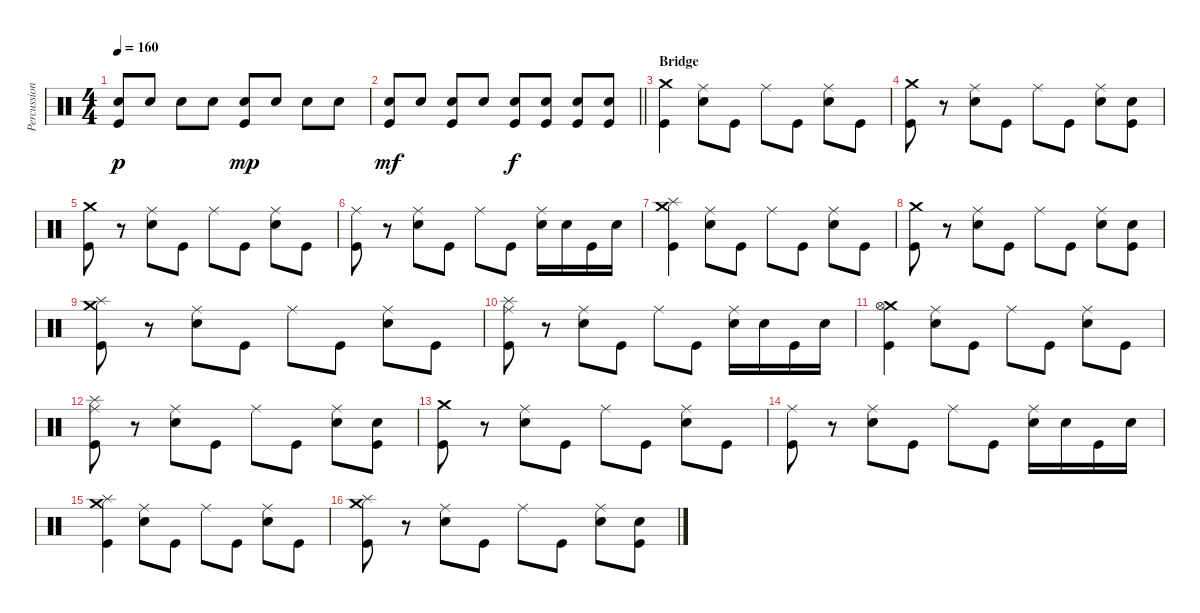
\track ("Percussion" "Percussion") {instrument percussion}
\staff {score}
\articulation defaults
\ts (4 4)
\tempo 160
\clef neutral
\ks c
("Snare (hit) 2" "Kick (hit)").8{dy p} "Snare (hit) 2".8 "Snare (hit) 2".8 "Snare (hit) 2".8 ("Snare (hit) 2" "Kick (hit)").8{dy mp} "Snare (hit) 2".8 "Snare (hit) 2".8 "Snare (hit) 2".8 |
\barLineRight lightlight
("Snare (hit) 2" "Kick (hit)").8{dy mf} "Snare (hit) 2".8 ("Snare (hit) 2" "Kick (hit)").8 "Snare (hit) 2".8 ("Snare (hit) 2" "Kick (hit)").8{dy f} ("Snare (hit) 2" "Kick (hit)").8 ("Snare (hit) 2" "Kick (hit)").8 ("Snare (hit) 2" "Kick (hit)").8 |
\section ("" "Bridge")
("Crash medium (hit)" "Kick (hit)").4 ("Ride (middle)" "Snare (hit) 2").8 "Kick (hit)".8 "Ride (middle)".8 "Kick (hit)".8 ("Ride (middle)" "Snare (hit) 2").8 "Kick (hit)".8 |
("Crash medium (hit)" "Kick (hit)").8 r.8 ("Ride (middle)" "Snare (hit) 2").8 "Kick (hit)".8 "Ride (middle)".8 "Kick (hit)".8 ("Ride (middle)" "Snare (hit) 2").8 ("Snare (hit) 2" "Kick (hit)").8 |
("Crash medium (hit)" "Kick (hit)").8 r.8 ("Ride (middle)" "Snare (hit) 2").8 "Kick (hit)".8 "Ride (middle)".8 "Kick (hit)".8 ("Ride (middle)" "Snare (hit) 2").8 "Kick (hit)".8 |
("Ride (middle)" "Kick (hit)").8 r.8 ("Ride (middle)" "Snare (hit) 2").8 "Kick (hit)".8 "Ride (middle)".8 "Kick (hit)".8 ("Ride (middle)" "Snare (hit) 2").16 "Snare (hit) 2".16 "Kick (hit)".16 "Snare (hit) 2".16 |
("Crash medium (hit)" "Splash (hit)" "Kick (hit)").4 ("Ride (middle)" "Snare (hit) 2").8 "Kick (hit)".8 "Ride (middle)".8 "Kick (hit)".8 ("Ride (middle)" "Snare (hit) 2").8 "Kick (hit)".8 |
("Crash medium (hit)" "Kick (hit)").8 r.8 ("Ride (middle)" "Snare (hit) 2").8 "Kick (hit)".8 "Ride (middle)".8 "Kick (hit)".8 ("Ride (middle)" "Snare (hit) 2").8 ("Snare (hit) 2" "Kick (hit)").8 |
("Crash medium (hit)" "Splash (hit)" "Kick (hit)").8 r.8 ("Ride (middle)" "Snare (hit) 2").8 "Kick (hit)".8 "Ride (middle)".8 "Kick (hit)".8 ("Ride (middle)" "Snare (hit) 2").8 "Kick (hit)".8 |
("Ride (middle)" "Splash (hit)" "Kick (hit)").8 r.8 ("Ride (middle)" "Snare (hit) 2").8 "Kick (hit)".8 "Ride (middle)".8 "Kick (hit)".8 ("Ride (middle)" "Snare (hit) 2").16 "Snare (hit) 2".16 "Kick (hit)".16 "Snare (hit) 2".16 |
("Crash medium (hit)" "Hi-Hat (open)" "Kick (hit)").4 ("Ride (middle)" "Snare (hit) 2").8 "Kick (hit)".8 "Ride (middle)".8 "Kick (hit)".8 ("Ride (middle)" "Snare (hit) 2").8 "Kick (hit)".8 |
("Ride (middle)" "Splash (hit)" "Kick (hit)").8 r.8 ("Ride (middle)" "Snare (hit) 2").8 "Kick (hit)".8 "Ride (middle)".8 "Kick (hit)".8 ("Ride (middle)" "Snare (hit) 2").8 ("Snare (hit) 2" "Kick (hit)").8 |
("Crash medium (hit)" "Kick (hit)").8 r.8 ("Ride (middle)" "Snare (hit) 2").8 "Kick (hit)".8 "Ride (middle)".8 "Kick (hit)".8 ("Ride (middle)" "Snare (hit) 2").8 "Kick (hit)".8 |
("Ride (middle)" "Kick (hit)").8 r.8 ("Ride (middle)" "Snare (hit) 2").8 "Kick (hit)".8 "Ride (middle)".8 "Kick (hit)".8 ("Ride (middle)" "Snare (hit) 2").16 "Snare (hit) 2".16 "Kick (hit)".16 "Snare (hit) 2".16 |
("Crash medium (hit)" "Splash (hit)" "Kick (hit)").4 ("Ride (middle)" "Snare (hit) 2").8 "Kick (hit)".8 "Ride (middle)".8 "Kick (hit)".8 ("Ride (middle)" "Snare (hit) 2").8 "Kick (hit)".8 |
("Crash medium (hit)" "Splash (hit)" "Kick (hit)").8 r.8 ("Ride (middle)" "Snare (hit) 2").8 "Kick (hit)".8 "Ride (middle)".8 "Kick (hit)".8 ("Ride (middle)" "Snare (hit) 2").8 ("Snare (hit) 2" "Kick (hit)").8
